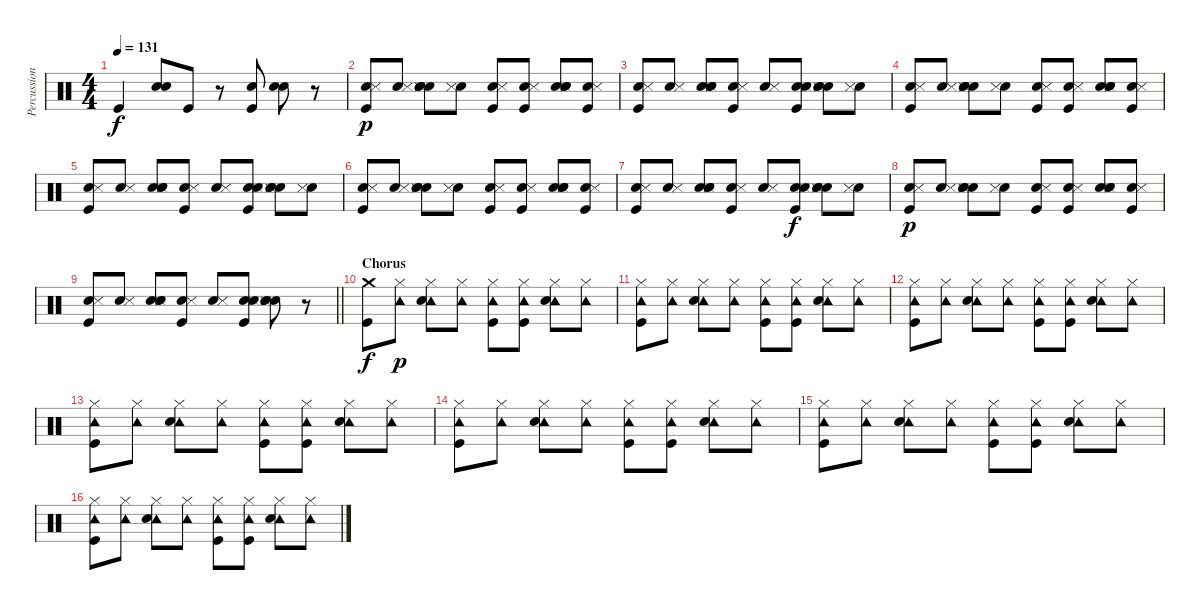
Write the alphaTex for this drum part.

\track ("Percussion" "Percussion") {instrument percussion}
\staff {score}
\articulation defaults
\ts (4 4)
\tempo 131
\clef neutral
\ks c "Kick (hit)".4{dy f}
("Snare (hit) 2" "Snare (hit) 2").8 "Kick (hit)".8 r.8 ("Snare (hit) 2" "Kick (hit)").8 ("Snare (hit) 2" "Snare (hit) 2").8 r.8 |
("Hand Clap (hit)" "Snare (side stick) 3" "Kick (hit)").8{dy p} ("Hand Clap (hit)" "Snare (side stick) 3").8 ("Hand Clap (hit)" "Snare (side stick) 3" "Snare (hit) 2" "Snare (hit) 2").8 ("Hand Clap (hit)" "Snare (side stick) 3").8 ("Hand Clap (hit)" "Snare (side stick) 3" "Kick (hit)").8 ("Hand Clap (hit)" "Snare (side stick) 3" "Kick (hit)").8 ("Hand Clap (hit)" "Snare (side stick) 3" "Snare (hit) 2" "Snare (hit) 2").8 ("Hand Clap (hit)" "Snare (side stick) 3" "Kick (hit)").8 |
("Hand Clap (hit)" "Snare (side stick) 3" "Kick (hit)").8 ("Hand Clap (hit)" "Snare (side stick) 3").8 ("Hand Clap (hit)" "Snare (side stick) 3" "Snare (hit) 2" "Snare (hit) 2").8 ("Hand Clap (hit)" "Snare (side stick) 3" "Kick (hit)").8 ("Hand Clap (hit)" "Snare (side stick) 3").8 ("Hand Clap (hit)" "Snare (side stick) 3" "Snare (hit) 2" "Kick (hit)").8 ("Hand Clap (hit)" "Snare (side stick) 3" "Snare (hit) 2" "Snare (hit) 2").8 ("Hand Clap (hit)" "Snare (side stick) 3").8 |
("Hand Clap (hit)" "Snare (side stick) 3" "Kick (hit)").8 ("Hand Clap (hit)" "Snare (side stick) 3").8 ("Hand Clap (hit)" "Snare (side stick) 3" "Snare (hit) 2" "Snare (hit) 2").8 ("Hand Clap (hit)" "Snare (side stick) 3").8 ("Hand Clap (hit)" "Snare (side stick) 3" "Kick (hit)").8 ("Hand Clap (hit)" "Snare (side stick) 3" "Kick (hit)").8 ("Hand Clap (hit)" "Snare (side stick) 3" "Snare (hit) 2" "Snare (hit) 2").8 ("Hand Clap (hit)" "Snare (side stick) 3" "Kick (hit)").8 |
("Hand Clap (hit)" "Snare (side stick) 3" "Kick (hit)").8 ("Hand Clap (hit)" "Snare (side stick) 3").8 ("Hand Clap (hit)" "Snare (side stick) 3" "Snare (hit) 2" "Snare (hit) 2").8 ("Hand Clap (hit)" "Snare (side stick) 3" "Kick (hit)").8 ("Hand Clap (hit)" "Snare (side stick) 3").8 ("Hand Clap (hit)" "Snare (side stick) 3" "Snare (hit) 2" "Kick (hit)").8 ("Hand Clap (hit)" "Snare (side stick) 3" "Snare (hit) 2" "Snare (hit) 2").8 ("Hand Clap (hit)" "Snare (side stick) 3").8 |
("Hand Clap (hit)" "Snare (side stick) 3" "Kick (hit)").8 ("Hand Clap (hit)" "Snare (side stick) 3").8 ("Hand Clap (hit)" "Snare (side stick) 3" "Snare (hit) 2" "Snare (hit) 2").8 ("Hand Clap (hit)" "Snare (side stick) 3").8 ("Hand Clap (hit)" "Snare (side stick) 3" "Kick (hit)").8 ("Hand Clap (hit)" "Snare (side stick) 3" "Kick (hit)").8 ("Hand Clap (hit)" "Snare (side stick) 3" "Snare (hit) 2" "Snare (hit) 2").8 ("Hand Clap (hit)" "Snare (side stick) 3" "Kick (hit)").8 |
("Hand Clap (hit)" "Snare (side stick) 3" "Kick (hit)").8 ("Hand Clap (hit)" "Snare (side stick) 3").8 ("Hand Clap (hit)" "Snare (side stick) 3" "Snare (hit) 2" "Snare (hit) 2").8 ("Hand Clap (hit)" "Snare (side stick) 3" "Kick (hit)").8 ("Hand Clap (hit)" "Snare (side stick) 3").8 ("Hand Clap (hit)" "Snare (side stick) 3" "Snare (hit) 2" "Kick (hit)").8{dy f} ("Hand Clap (hit)" "Snare (side stick) 3" "Snare (hit) 2" "Snare (hit) 2").8 ("Hand Clap (hit)" "Snare (side stick) 3").8 |
("Hand Clap (hit)" "Snare (side stick) 3" "Kick (hit)").8{dy p} ("Hand Clap (hit)" "Snare (side stick) 3").8 ("Hand Clap (hit)" "Snare (side stick) 3" "Snare (hit) 2" "Snare (hit) 2").8 ("Hand Clap (hit)" "Snare (side stick) 3").8 ("Hand Clap (hit)" "Snare (side stick) 3" "Kick (hit)").8 ("Hand Clap (hit)" "Snare (side stick) 3" "Kick (hit)").8 ("Hand Clap (hit)" "Snare (side stick) 3" "Snare (hit) 2" "Snare (hit) 2").8 ("Hand Clap (hit)" "Snare (side stick) 3" "Kick (hit)").8 |
\barLineRight lightlight
("Hand Clap (hit)" "Snare (side stick) 3" "Kick (hit)").8 ("Hand Clap (hit)" "Snare (side stick) 3").8 ("Hand Clap (hit)" "Snare (side stick) 3" "Snare (hit) 2" "Snare (hit) 2").8 ("Hand Clap (hit)" "Snare (side stick) 3" "Kick (hit)").8 ("Hand Clap (hit)" "Snare (side stick) 3").8 ("Hand Clap (hit)" "Snare (side stick) 3" "Snare (hit) 2" "Kick (hit)").8 ("Hand Clap (hit)" "Snare (side stick) 3" "Snare (hit) 2" "Snare (hit) 2").8 r.8 |
\section ("" "Chorus")
("Crash medium (hit)" "Kick (hit)").8{dy f} ("Tambourine (hit)" "Hi-Hat (closed)").8{dy p} ("Tambourine (hit)" "Hi-Hat (closed)" "Snare (hit) 2").8 ("Tambourine (hit)" "Hi-Hat (closed)").8 ("Tambourine (hit)" "Hi-Hat (closed)" "Kick (hit)").8 ("Tambourine (hit)" "Hi-Hat (closed)" "Kick (hit)").8 ("Tambourine (hit)" "Hi-Hat (closed)" "Snare (hit) 2").8 ("Tambourine (hit)" "Hi-Hat (closed)").8 |
("Tambourine (hit)" "Hi-Hat (closed)" "Kick (hit)").8 ("Tambourine (hit)" "Hi-Hat (closed)").8 ("Tambourine (hit)" "Hi-Hat (closed)" "Snare (hit) 2").8 ("Tambourine (hit)" "Hi-Hat (closed)").8 ("Tambourine (hit)" "Hi-Hat (closed)" "Kick (hit)").8 ("Tambourine (hit)" "Hi-Hat (closed)" "Kick (hit)").8 ("Tambourine (hit)" "Hi-Hat (closed)" "Snare (hit) 2").8 ("Tambourine (hit)" "Hi-Hat (closed)").8 |
("Tambourine (hit)" "Hi-Hat (closed)" "Kick (hit)").8 ("Tambourine (hit)" "Hi-Hat (closed)").8 ("Tambourine (hit)" "Hi-Hat (closed)" "Snare (hit) 2").8 ("Tambourine (hit)" "Hi-Hat (closed)").8 ("Tambourine (hit)" "Hi-Hat (closed)" "Kick (hit)").8 ("Tambourine (hit)" "Hi-Hat (closed)" "Kick (hit)").8 ("Tambourine (hit)" "Hi-Hat (closed)" "Snare (hit) 2").8 ("Tambourine (hit)" "Hi-Hat (closed)").8 |
("Tambourine (hit)" "Hi-Hat (closed)" "Kick (hit)").8 ("Tambourine (hit)" "Hi-Hat (closed)").8 ("Tambourine (hit)" "Hi-Hat (closed)" "Snare (hit) 2").8 ("Tambourine (hit)" "Hi-Hat (closed)").8 ("Tambourine (hit)" "Hi-Hat (closed)" "Kick (hit)").8 ("Tambourine (hit)" "Hi-Hat (closed)" "Kick (hit)").8 ("Tambourine (hit)" "Hi-Hat (closed)" "Snare (hit) 2").8 ("Tambourine (hit)" "Hi-Hat (closed)").8 |
("Tambourine (hit)" "Hi-Hat (closed)" "Kick (hit)").8 ("Tambourine (hit)" "Hi-Hat (closed)").8 ("Tambourine (hit)" "Hi-Hat (closed)" "Snare (hit) 2").8 ("Tambourine (hit)" "Hi-Hat (closed)").8 ("Tambourine (hit)" "Hi-Hat (closed)" "Kick (hit)").8 ("Tambourine (hit)" "Hi-Hat (closed)" "Kick (hit)").8 ("Tambourine (hit)" "Hi-Hat (closed)" "Snare (hit) 2").8 ("Tambourine (hit)" "Hi-Hat (closed)").8 |
("Tambourine (hit)" "Hi-Hat (closed)" "Kick (hit)").8 ("Tambourine (hit)" "Hi-Hat (closed)").8 ("Tambourine (hit)" "Hi-Hat (closed)" "Snare (hit) 2").8 ("Tambourine (hit)" "Hi-Hat (closed)").8 ("Tambourine (hit)" "Hi-Hat (closed)" "Kick (hit)").8 ("Tambourine (hit)" "Hi-Hat (closed)" "Kick (hit)").8 ("Tambourine (hit)" "Hi-Hat (closed)" "Snare (hit) 2").8 ("Tambourine (hit)" "Hi-Hat (closed)").8 |
("Tambourine (hit)" "Hi-Hat (closed)" "Kick (hit)").8 ("Tambourine (hit)" "Hi-Hat (closed)").8 ("Tambourine (hit)" "Hi-Hat (closed)" "Snare (hit) 2").8 ("Tambourine (hit)" "Hi-Hat (closed)").8 ("Tambourine (hit)" "Hi-Hat (closed)" "Kick (hit)").8 ("Tambourine (hit)" "Hi-Hat (closed)" "Kick (hit)").8 ("Tambourine (hit)" "Hi-Hat (closed)" "Snare (hit) 2").8 ("Tambourine (hit)" "Hi-Hat (closed)").8
